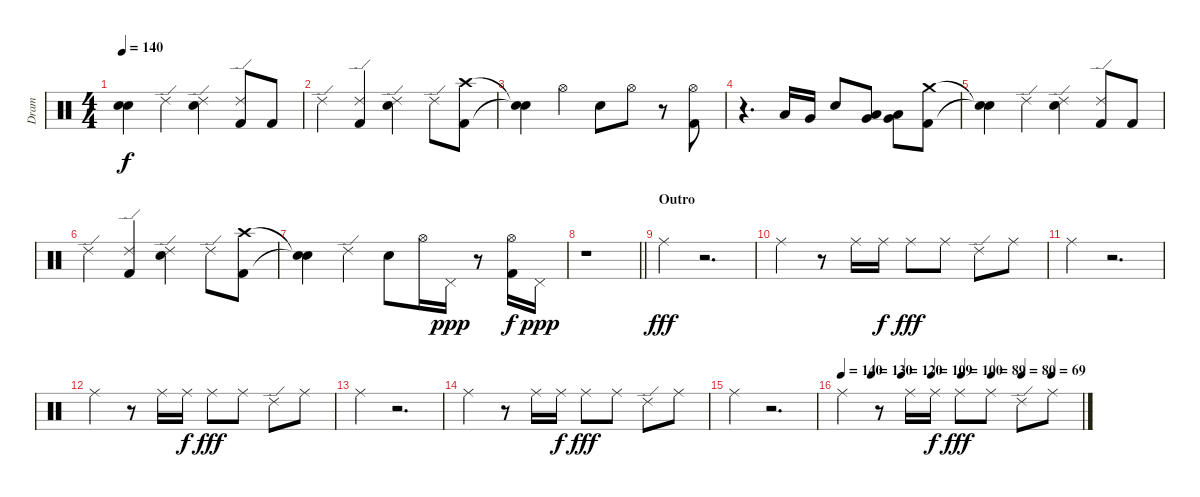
\track ("Dram" "Dram") {instrument percussion}
\staff {score}
\articulation defaults
\ts (4 4)
\tempo 140
\clef neutral
\ks c
("Snare (hit)"{t} "Snare (hit)"{t}).4{dy f} "Ride (edge) 2".4 ("Snare (hit) 2" "Ride (edge) 2").4 ("Kick (hit) 2" "Ride (edge) 2").8 "Kick (hit) 2".8 |
"Ride (edge) 2".4 ("Kick (hit) 2" "Ride (edge) 2").4 ("Snare (hit) 2" "Ride (edge) 2").4 "Ride (edge) 2".8 ("Crash high (hit)" "Kick (hit) 2").8 |
("Snare (hit)"{t} "Snare (hit)"{t}).4 "Hi-Hat (open)".4 "Snare (hit) 2".8 "Hi-Hat (open)".8 r.8 ("Hi-Hat (open)" "Kick (hit) 2").8 |
r.4{d} "Low Tom (hit)".16 "Very Low Tom (hit)".16 "Snare (hit) 2".8 ("Very Low Tom (hit)" "Low Tom (hit)").8 ("Low Floor Tom (hit)" "Very Low Tom (hit)").8 ("Crash medium (hit)" "Kick (hit) 2").8 |
("Snare (hit)"{t} "Snare (hit)"{t}).4 "Ride (edge) 2".4 ("Snare (hit) 2" "Ride (edge) 2").4 ("Kick (hit) 2" "Ride (edge) 2").8 "Kick (hit) 2".8 |
"Ride (edge) 2".4 ("Kick (hit) 2" "Ride (edge) 2").4 ("Snare (hit) 2" "Ride (edge) 2").4 "Ride (edge) 2".8 ("Crash high (hit)" "Kick (hit) 2").8 |
("Snare (hit)"{t} "Snare (hit)"{t}).4 "Ride (edge) 2".4 "Snare (hit) 2".8 "Hi-Hat (open)".16 "Pedal Hi-Hat (hit)".16{dy ppp} r.8 ("Hi-Hat (open)" "Kick (hit) 2").16{dy f} "Pedal Hi-Hat (hit)".16{dy ppp} |
\barLineRight lightlight
r.1 |
\section ("" "Outro")
"Ride (middle)".4{dy fff} r.2{d} |
"Ride (middle)".4 r.8 "Ride (middle)".16 "Ride (middle)".16{dy f} "Ride (middle)".8{dy fff} "Ride (middle)".8 "Ride (edge) 2".8 "Ride (middle)".8 |
"Ride (middle)".4 r.2{d} |
"Ride (middle)".4 r.8 "Ride (middle)".16 "Ride (middle)".16{dy f} "Ride (middle)".8{dy fff} "Ride (middle)".8 "Ride (edge) 2".8 "Ride (middle)".8 |
"Ride (middle)".4 r.2{d} |
"Ride (middle)".4 r.8 "Ride (middle)".16 "Ride (middle)".16{dy f} "Ride (middle)".8{dy fff} "Ride (middle)".8 "Ride (edge) 2".8 "Ride (middle)".8 |
"Ride (middle)".4 r.2{d} |
\tempo 140
\tempo (130 0.125)
\tempo (120 0.25)
\tempo (109 0.375)
\tempo (100 0.5)
\tempo (89 0.625)
\tempo (80 0.75)
\tempo (69 0.875)
"Ride (middle)".4 r.8 "Ride (middle)".16 "Ride (middle)".16{dy f} "Ride (middle)".8{dy fff} "Ride (middle)".8 "Ride (edge) 2".8 "Ride (middle)".8
